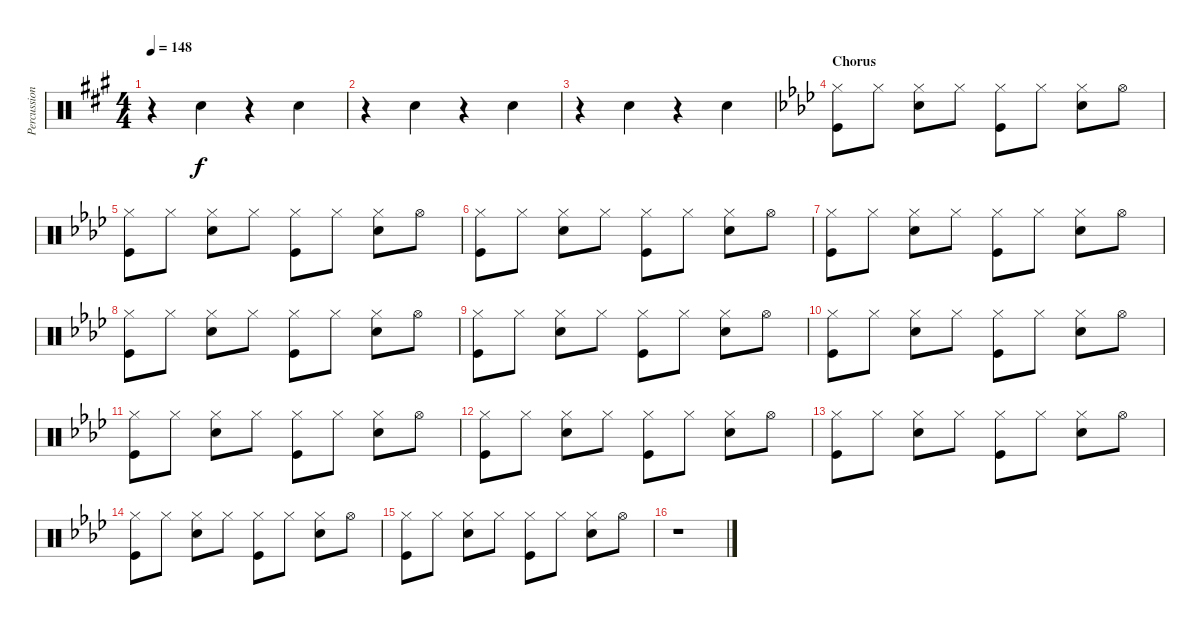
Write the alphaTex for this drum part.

\track ("Percussion" "Percussion") {instrument percussion}
\staff {score}
\articulation defaults
\ts (4 4)
\tempo 148
\clef neutral
\ks a
r.4{dy f} "Hand Clap (hit)".4 r.4 "Hand Clap (hit)".4 |
r.4 "Hand Clap (hit)".4 r.4 "Hand Clap (hit)".4 |
r.4 "Hand Clap (hit)".4 r.4 "Hand Clap (hit)".4 |
\section ("" "Chorus")
\ks ab
("Hi-Hat (closed)" "Kick (hit)").8 "Hi-Hat (closed)".8 ("Hi-Hat (closed)" "Snare (hit) 2").8 "Hi-Hat (closed)".8 ("Hi-Hat (closed)" "Kick (hit)").8 "Hi-Hat (closed)".8 ("Hi-Hat (closed)" "Snare (hit) 2").8 "Hi-Hat (open)".8 |
("Hi-Hat (closed)" "Kick (hit)").8 "Hi-Hat (closed)".8 ("Hi-Hat (closed)" "Snare (hit) 2").8 "Hi-Hat (closed)".8 ("Hi-Hat (closed)" "Kick (hit)").8 "Hi-Hat (closed)".8 ("Hi-Hat (closed)" "Snare (hit) 2").8 "Hi-Hat (open)".8 |
("Hi-Hat (closed)" "Kick (hit)").8 "Hi-Hat (closed)".8 ("Hi-Hat (closed)" "Snare (hit) 2").8 "Hi-Hat (closed)".8 ("Hi-Hat (closed)" "Kick (hit)").8 "Hi-Hat (closed)".8 ("Hi-Hat (closed)" "Snare (hit) 2").8 "Hi-Hat (open)".8 |
("Hi-Hat (closed)" "Kick (hit)").8 "Hi-Hat (closed)".8 ("Hi-Hat (closed)" "Snare (hit) 2").8 "Hi-Hat (closed)".8 ("Hi-Hat (closed)" "Kick (hit)").8 "Hi-Hat (closed)".8 ("Hi-Hat (closed)" "Snare (hit) 2").8 "Hi-Hat (open)".8 |
("Hi-Hat (closed)" "Kick (hit)").8 "Hi-Hat (closed)".8 ("Hi-Hat (closed)" "Snare (hit) 2").8 "Hi-Hat (closed)".8 ("Hi-Hat (closed)" "Kick (hit)").8 "Hi-Hat (closed)".8 ("Hi-Hat (closed)" "Snare (hit) 2").8 "Hi-Hat (open)".8 |
("Hi-Hat (closed)" "Kick (hit)").8 "Hi-Hat (closed)".8 ("Hi-Hat (closed)" "Snare (hit) 2").8 "Hi-Hat (closed)".8 ("Hi-Hat (closed)" "Kick (hit)").8 "Hi-Hat (closed)".8 ("Hi-Hat (closed)" "Snare (hit) 2").8 "Hi-Hat (open)".8 |
("Hi-Hat (closed)" "Kick (hit)").8 "Hi-Hat (closed)".8 ("Hi-Hat (closed)" "Snare (hit) 2").8 "Hi-Hat (closed)".8 ("Hi-Hat (closed)" "Kick (hit)").8 "Hi-Hat (closed)".8 ("Hi-Hat (closed)" "Snare (hit) 2").8 "Hi-Hat (open)".8 |
("Hi-Hat (closed)" "Kick (hit)").8 "Hi-Hat (closed)".8 ("Hi-Hat (closed)" "Snare (hit) 2").8 "Hi-Hat (closed)".8 ("Hi-Hat (closed)" "Kick (hit)").8 "Hi-Hat (closed)".8 ("Hi-Hat (closed)" "Snare (hit) 2").8 "Hi-Hat (open)".8 |
("Hi-Hat (closed)" "Kick (hit)").8 "Hi-Hat (closed)".8 ("Hi-Hat (closed)" "Snare (hit) 2").8 "Hi-Hat (closed)".8 ("Hi-Hat (closed)" "Kick (hit)").8 "Hi-Hat (closed)".8 ("Hi-Hat (closed)" "Snare (hit) 2").8 "Hi-Hat (open)".8 |
("Hi-Hat (closed)" "Kick (hit)").8 "Hi-Hat (closed)".8 ("Hi-Hat (closed)" "Snare (hit) 2").8 "Hi-Hat (closed)".8 ("Hi-Hat (closed)" "Kick (hit)").8 "Hi-Hat (closed)".8 ("Hi-Hat (closed)" "Snare (hit) 2").8 "Hi-Hat (open)".8 |
("Hi-Hat (closed)" "Kick (hit)").8 "Hi-Hat (closed)".8 ("Hi-Hat (closed)" "Snare (hit) 2").8 "Hi-Hat (closed)".8 ("Hi-Hat (closed)" "Kick (hit)").8 "Hi-Hat (closed)".8 ("Hi-Hat (closed)" "Snare (hit) 2").8 "Hi-Hat (open)".8 |
("Hi-Hat (closed)" "Kick (hit)").8 "Hi-Hat (closed)".8 ("Hi-Hat (closed)" "Snare (hit) 2").8 "Hi-Hat (closed)".8 ("Hi-Hat (closed)" "Kick (hit)").8 "Hi-Hat (closed)".8 ("Hi-Hat (closed)" "Snare (hit) 2").8 "Hi-Hat (open)".8 |
r.1
